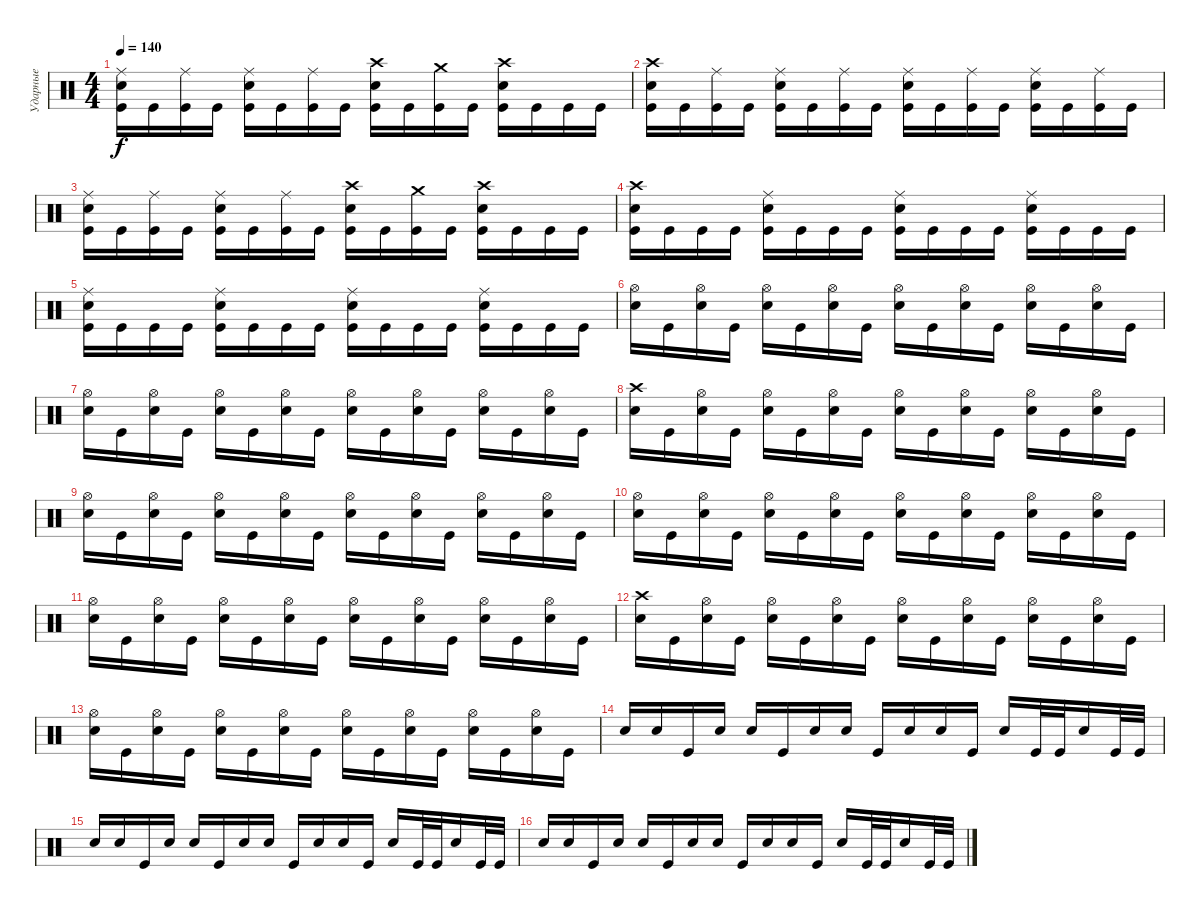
\track ("Ударные" "Ударные") {instrument percussion}
\staff {score}
\articulation defaults
\ts (4 4)
\tempo 140
\clef neutral
\ks c
("Ride (middle)" "Electric Snare (hit)" "Kick (hit)").16{dy f} "Kick (hit)".16 ("Ride (middle)" "Kick (hit)").16 "Kick (hit)".16 ("Ride (middle)" "Electric Snare (hit)" "Kick (hit)").16 "Kick (hit)".16 ("Ride (middle)" "Kick (hit)").16 "Kick (hit)".16 ("Crash high (hit)" "Electric Snare (hit)" "Kick (hit)").16 "Kick (hit)".16 ("Crash medium (hit)" "Kick (hit)").16 "Kick (hit)".16 ("Crash high (hit)" "Electric Snare (hit)" "Kick (hit)").16 "Kick (hit)".16 "Kick (hit)".16 "Kick (hit)".16 |
("Crash high (hit)" "Electric Snare (hit)" "Kick (hit)").16 "Kick (hit)".16 ("Ride (middle)" "Kick (hit)").16 "Kick (hit)".16 ("Ride (middle)" "Electric Snare (hit)" "Kick (hit)").16 "Kick (hit)".16 ("Ride (middle)" "Kick (hit)").16 "Kick (hit)".16 ("Ride (middle)" "Electric Snare (hit)" "Kick (hit)").16 "Kick (hit)".16 ("Ride (middle)" "Kick (hit)").16 "Kick (hit)".16 ("Ride (middle)" "Electric Snare (hit)" "Kick (hit)").16 "Kick (hit)".16 ("Ride (middle)" "Kick (hit)").16 "Kick (hit)".16 |
("Ride (middle)" "Electric Snare (hit)" "Kick (hit)").16 "Kick (hit)".16 ("Ride (middle)" "Kick (hit)").16 "Kick (hit)".16 ("Ride (middle)" "Electric Snare (hit)" "Kick (hit)").16 "Kick (hit)".16 ("Ride (middle)" "Kick (hit)").16 "Kick (hit)".16 ("Crash high (hit)" "Electric Snare (hit)" "Kick (hit)").16 "Kick (hit)".16 ("Crash medium (hit)" "Kick (hit)").16 "Kick (hit)".16 ("Crash high (hit)" "Electric Snare (hit)" "Kick (hit)").16 "Kick (hit)".16 "Kick (hit)".16 "Kick (hit)".16 |
("Crash high (hit)" "Electric Snare (hit)" "Kick (hit)").16 "Kick (hit)".16 "Kick (hit)".16 "Kick (hit)".16 ("Ride (middle)" "Electric Snare (hit)" "Kick (hit)").16 "Kick (hit)".16 "Kick (hit)".16 "Kick (hit)".16 ("Ride (middle)" "Electric Snare (hit)" "Kick (hit)").16 "Kick (hit)".16 "Kick (hit)".16 "Kick (hit)".16 ("Ride (middle)" "Electric Snare (hit)" "Kick (hit)").16 "Kick (hit)".16 "Kick (hit)".16 "Kick (hit)".16 |
("Ride (middle)" "Electric Snare (hit)" "Kick (hit)").16 "Kick (hit)".16 "Kick (hit)".16 "Kick (hit)".16 ("Ride (middle)" "Electric Snare (hit)" "Kick (hit)").16 "Kick (hit)".16 "Kick (hit)".16 "Kick (hit)".16 ("Ride (middle)" "Electric Snare (hit)" "Kick (hit)").16 "Kick (hit)".16 "Kick (hit)".16 "Kick (hit)".16 ("Ride (middle)" "Electric Snare (hit)" "Kick (hit)").16 "Kick (hit)".16 "Kick (hit)".16 "Kick (hit)".16 |
("Electric Snare (hit)" "Hi-Hat (open)").16 "Kick (hit)".16 ("Electric Snare (hit)" "Hi-Hat (open)").16 "Kick (hit)".16 ("Electric Snare (hit)" "Hi-Hat (open)").16 "Kick (hit)".16 ("Electric Snare (hit)" "Hi-Hat (open)").16 "Kick (hit)".16 ("Electric Snare (hit)" "Hi-Hat (open)").16 "Kick (hit)".16 ("Electric Snare (hit)" "Hi-Hat (open)").16 "Kick (hit)".16 ("Electric Snare (hit)" "Hi-Hat (open)").16 "Kick (hit)".16 ("Electric Snare (hit)" "Hi-Hat (open)").16 "Kick (hit)".16 |
("Electric Snare (hit)" "Hi-Hat (open)").16 "Kick (hit)".16 ("Electric Snare (hit)" "Hi-Hat (open)").16 "Kick (hit)".16 ("Electric Snare (hit)" "Hi-Hat (open)").16 "Kick (hit)".16 ("Electric Snare (hit)" "Hi-Hat (open)").16 "Kick (hit)".16 ("Electric Snare (hit)" "Hi-Hat (open)").16 "Kick (hit)".16 ("Electric Snare (hit)" "Hi-Hat (open)").16 "Kick (hit)".16 ("Electric Snare (hit)" "Hi-Hat (open)").16 "Kick (hit)".16 ("Electric Snare (hit)" "Hi-Hat (open)").16 "Kick (hit)".16 |
("Electric Snare (hit)" "Crash high (hit)").16 "Kick (hit)".16 ("Electric Snare (hit)" "Hi-Hat (open)").16 "Kick (hit)".16 ("Electric Snare (hit)" "Hi-Hat (open)").16 "Kick (hit)".16 ("Electric Snare (hit)" "Hi-Hat (open)").16 "Kick (hit)".16 ("Electric Snare (hit)" "Hi-Hat (open)").16 "Kick (hit)".16 ("Electric Snare (hit)" "Hi-Hat (open)").16 "Kick (hit)".16 ("Electric Snare (hit)" "Hi-Hat (open)").16 "Kick (hit)".16 ("Electric Snare (hit)" "Hi-Hat (open)").16 "Kick (hit)".16 |
("Electric Snare (hit)" "Hi-Hat (open)").16 "Kick (hit)".16 ("Electric Snare (hit)" "Hi-Hat (open)").16 "Kick (hit)".16 ("Electric Snare (hit)" "Hi-Hat (open)").16 "Kick (hit)".16 ("Electric Snare (hit)" "Hi-Hat (open)").16 "Kick (hit)".16 ("Electric Snare (hit)" "Hi-Hat (open)").16 "Kick (hit)".16 ("Electric Snare (hit)" "Hi-Hat (open)").16 "Kick (hit)".16 ("Electric Snare (hit)" "Hi-Hat (open)").16 "Kick (hit)".16 ("Electric Snare (hit)" "Hi-Hat (open)").16 "Kick (hit)".16 |
("Electric Snare (hit)" "Hi-Hat (open)").16 "Kick (hit)".16 ("Electric Snare (hit)" "Hi-Hat (open)").16 "Kick (hit)".16 ("Electric Snare (hit)" "Hi-Hat (open)").16 "Kick (hit)".16 ("Electric Snare (hit)" "Hi-Hat (open)").16 "Kick (hit)".16 ("Electric Snare (hit)" "Hi-Hat (open)").16 "Kick (hit)".16 ("Electric Snare (hit)" "Hi-Hat (open)").16 "Kick (hit)".16 ("Electric Snare (hit)" "Hi-Hat (open)").16 "Kick (hit)".16 ("Electric Snare (hit)" "Hi-Hat (open)").16 "Kick (hit)".16 |
("Electric Snare (hit)" "Hi-Hat (open)").16 "Kick (hit)".16 ("Electric Snare (hit)" "Hi-Hat (open)").16 "Kick (hit)".16 ("Electric Snare (hit)" "Hi-Hat (open)").16 "Kick (hit)".16 ("Electric Snare (hit)" "Hi-Hat (open)").16 "Kick (hit)".16 ("Electric Snare (hit)" "Hi-Hat (open)").16 "Kick (hit)".16 ("Electric Snare (hit)" "Hi-Hat (open)").16 "Kick (hit)".16 ("Electric Snare (hit)" "Hi-Hat (open)").16 "Kick (hit)".16 ("Electric Snare (hit)" "Hi-Hat (open)").16 "Kick (hit)".16 |
("Electric Snare (hit)" "Crash high (hit)").16 "Kick (hit)".16 ("Electric Snare (hit)" "Hi-Hat (open)").16 "Kick (hit)".16 ("Electric Snare (hit)" "Hi-Hat (open)").16 "Kick (hit)".16 ("Electric Snare (hit)" "Hi-Hat (open)").16 "Kick (hit)".16 ("Electric Snare (hit)" "Hi-Hat (open)").16 "Kick (hit)".16 ("Electric Snare (hit)" "Hi-Hat (open)").16 "Kick (hit)".16 ("Electric Snare (hit)" "Hi-Hat (open)").16 "Kick (hit)".16 ("Electric Snare (hit)" "Hi-Hat (open)").16 "Kick (hit)".16 |
("Electric Snare (hit)" "Hi-Hat (open)").16 "Kick (hit)".16 ("Electric Snare (hit)" "Hi-Hat (open)").16 "Kick (hit)".16 ("Electric Snare (hit)" "Hi-Hat (open)").16 "Kick (hit)".16 ("Electric Snare (hit)" "Hi-Hat (open)").16 "Kick (hit)".16 ("Electric Snare (hit)" "Hi-Hat (open)").16 "Kick (hit)".16 ("Electric Snare (hit)" "Hi-Hat (open)").16 "Kick (hit)".16 ("Electric Snare (hit)" "Hi-Hat (open)").16 "Kick (hit)".16 ("Electric Snare (hit)" "Hi-Hat (open)").16 "Kick (hit)".16 |
"Electric Snare (hit)".16 "Electric Snare (hit)".16 "Kick (hit)".16 "Electric Snare (hit)".16 "Electric Snare (hit)".16 "Kick (hit)".16 "Electric Snare (hit)".16 "Electric Snare (hit)".16 "Kick (hit)".16 "Electric Snare (hit)".16 "Electric Snare (hit)".16 "Kick (hit)".16 "Electric Snare (hit)".16 "Kick (hit)".32 "Kick (hit)".32 "Electric Snare (hit)".16 "Kick (hit)".32 "Kick (hit)".32 |
"Electric Snare (hit)".16 "Electric Snare (hit)".16 "Kick (hit)".16 "Electric Snare (hit)".16 "Electric Snare (hit)".16 "Kick (hit)".16 "Electric Snare (hit)".16 "Electric Snare (hit)".16 "Kick (hit)".16 "Electric Snare (hit)".16 "Electric Snare (hit)".16 "Kick (hit)".16 "Electric Snare (hit)".16 "Kick (hit)".32 "Kick (hit)".32 "Electric Snare (hit)".16 "Kick (hit)".32 "Kick (hit)".32 |
"Electric Snare (hit)".16 "Electric Snare (hit)".16 "Kick (hit)".16 "Electric Snare (hit)".16 "Electric Snare (hit)".16 "Kick (hit)".16 "Electric Snare (hit)".16 "Electric Snare (hit)".16 "Kick (hit)".16 "Electric Snare (hit)".16 "Electric Snare (hit)".16 "Kick (hit)".16 "Electric Snare (hit)".16 "Kick (hit)".32 "Kick (hit)".32 "Electric Snare (hit)".16 "Kick (hit)".32 "Kick (hit)".32
